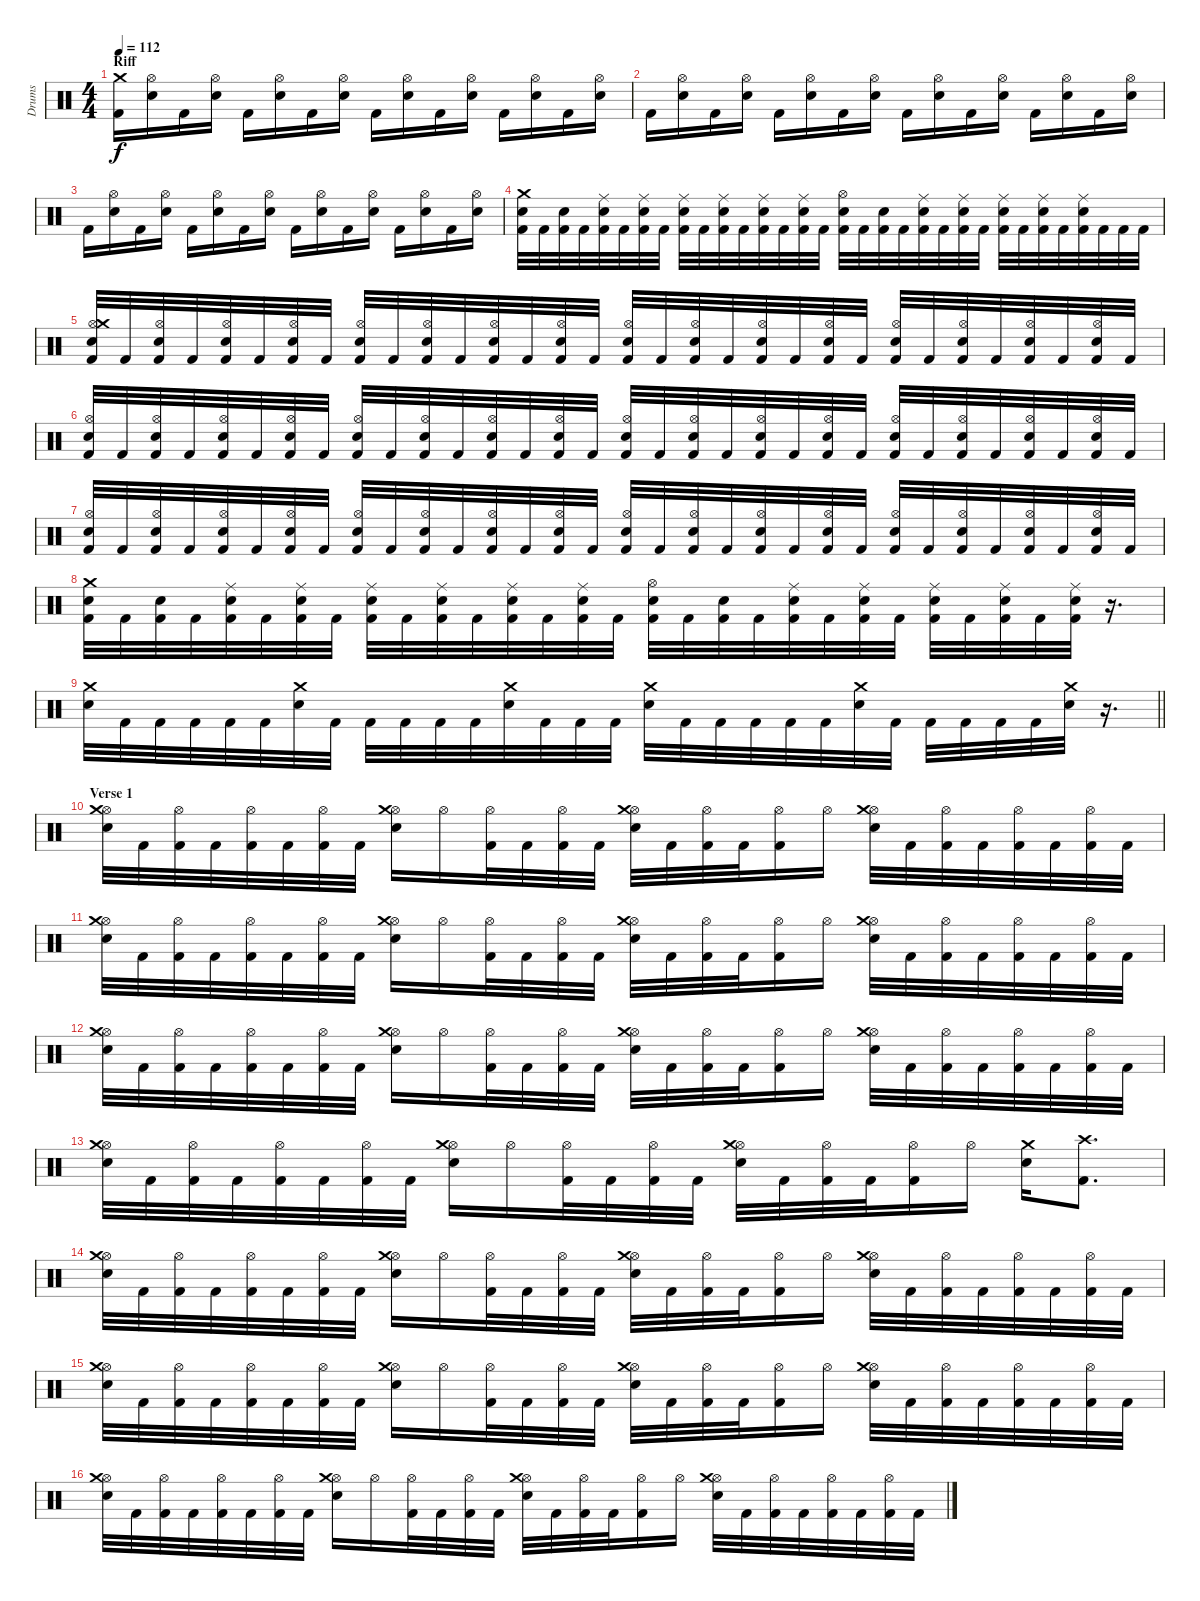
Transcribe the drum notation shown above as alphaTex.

\track ("Drums" "Drums") {instrument percussion}
\staff {score}
\articulation defaults
\ts (4 4)
\section ("" "Riff")
\tempo 112
\clef neutral
\ks c
("Kick (hit) 2" "Crash medium (hit)").16{dy f} ("Hi-Hat (open)" "Snare (hit) 2").16 "Kick (hit) 2".16 ("Hi-Hat (open)" "Snare (hit) 2").16 "Kick (hit) 2".16 ("Hi-Hat (open)" "Snare (hit) 2").16 "Kick (hit) 2".16 ("Hi-Hat (open)" "Snare (hit) 2").16 "Kick (hit) 2".16 ("Hi-Hat (open)" "Snare (hit) 2").16 "Kick (hit) 2".16 ("Hi-Hat (open)" "Snare (hit) 2").16 "Kick (hit) 2".16 ("Hi-Hat (open)" "Snare (hit) 2").16 "Kick (hit) 2".16 ("Hi-Hat (open)" "Snare (hit) 2").16 |
"Kick (hit) 2".16 ("Hi-Hat (open)" "Snare (hit) 2").16 "Kick (hit) 2".16 ("Hi-Hat (open)" "Snare (hit) 2").16 "Kick (hit) 2".16 ("Hi-Hat (open)" "Snare (hit) 2").16 "Kick (hit) 2".16 ("Hi-Hat (open)" "Snare (hit) 2").16 "Kick (hit) 2".16 ("Hi-Hat (open)" "Snare (hit) 2").16 "Kick (hit) 2".16 ("Hi-Hat (open)" "Snare (hit) 2").16 "Kick (hit) 2".16 ("Hi-Hat (open)" "Snare (hit) 2").16 "Kick (hit) 2".16 ("Hi-Hat (open)" "Snare (hit) 2").16 |
"Kick (hit) 2".16 ("Hi-Hat (open)" "Snare (hit) 2").16 "Kick (hit) 2".16 ("Hi-Hat (open)" "Snare (hit) 2").16 "Kick (hit) 2".16 ("Hi-Hat (open)" "Snare (hit) 2").16 "Kick (hit) 2".16 ("Hi-Hat (open)" "Snare (hit) 2").16 "Kick (hit) 2".16 ("Hi-Hat (open)" "Snare (hit) 2").16 "Kick (hit) 2".16 ("Hi-Hat (open)" "Snare (hit) 2").16 "Kick (hit) 2".16 ("Hi-Hat (open)" "Snare (hit) 2").16 "Kick (hit) 2".16 ("Hi-Hat (open)" "Snare (hit) 2").16 |
("Snare (hit) 2" "Kick (hit) 2" "Crash medium (hit)").32 "Kick (hit) 2".32 ("Snare (hit) 2" "Kick (hit) 2").32 "Kick (hit) 2".32 ("Ride (middle)" "Snare (hit) 2" "Kick (hit) 2").32 "Kick (hit) 2".32 ("Ride (middle)" "Snare (hit) 2" "Kick (hit) 2").32 "Kick (hit) 2".32 ("Ride (middle)" "Snare (hit) 2" "Kick (hit) 2").32 "Kick (hit) 2".32 ("Ride (middle)" "Snare (hit) 2" "Kick (hit) 2").32 "Kick (hit) 2".32 ("Ride (middle)" "Snare (hit) 2" "Kick (hit) 2").32 "Kick (hit) 2".32 ("Ride (middle)" "Snare (hit) 2" "Kick (hit) 2").32 "Kick (hit) 2".32 ("Hi-Hat (open)" "Snare (hit) 2" "Kick (hit) 2").32 "Kick (hit) 2".32 ("Snare (hit) 2" "Kick (hit) 2").32 "Kick (hit) 2".32 ("Ride (middle)" "Snare (hit) 2" "Kick (hit) 2").32 "Kick (hit) 2".32 ("Ride (middle)" "Snare (hit) 2" "Kick (hit) 2").32 "Kick (hit) 2".32 ("Ride (middle)" "Snare (hit) 2" "Kick (hit) 2").32 "Kick (hit) 2".32 ("Ride (middle)" "Snare (hit) 2" "Kick (hit) 2").32 "Kick (hit) 2".32 ("Ride (middle)" "Snare (hit) 2" "Kick (hit) 2").32 "Kick (hit) 2".32 "Kick (hit) 2".32 "Kick (hit) 2".32 |
("Hi-Hat (open)" "Snare (hit) 2" "Kick (hit) 2" "Crash medium (hit)").32 "Kick (hit) 2".32 ("Hi-Hat (open)" "Snare (hit) 2" "Kick (hit) 2").32 "Kick (hit) 2".32 ("Hi-Hat (open)" "Snare (hit) 2" "Kick (hit) 2").32 "Kick (hit) 2".32 ("Hi-Hat (open)" "Snare (hit) 2" "Kick (hit) 2").32 "Kick (hit) 2".32 ("Hi-Hat (open)" "Snare (hit) 2" "Kick (hit) 2").32 "Kick (hit) 2".32 ("Hi-Hat (open)" "Snare (hit) 2" "Kick (hit) 2").32 "Kick (hit) 2".32 ("Hi-Hat (open)" "Snare (hit) 2" "Kick (hit) 2").32 "Kick (hit) 2".32 ("Hi-Hat (open)" "Snare (hit) 2" "Kick (hit) 2").32 "Kick (hit) 2".32 ("Hi-Hat (open)" "Snare (hit) 2" "Kick (hit) 2").32 "Kick (hit) 2".32 ("Hi-Hat (open)" "Snare (hit) 2" "Kick (hit) 2").32 "Kick (hit) 2".32 ("Hi-Hat (open)" "Snare (hit) 2" "Kick (hit) 2").32 "Kick (hit) 2".32 ("Hi-Hat (open)" "Snare (hit) 2" "Kick (hit) 2").32 "Kick (hit) 2".32 ("Hi-Hat (open)" "Snare (hit) 2" "Kick (hit) 2").32 "Kick (hit) 2".32 ("Hi-Hat (open)" "Snare (hit) 2" "Kick (hit) 2").32 "Kick (hit) 2".32 ("Hi-Hat (open)" "Snare (hit) 2" "Kick (hit) 2").32 "Kick (hit) 2".32 ("Hi-Hat (open)" "Snare (hit) 2" "Kick (hit) 2").32 "Kick (hit) 2".32 |
("Hi-Hat (open)" "Snare (hit) 2" "Kick (hit) 2").32 "Kick (hit) 2".32 ("Hi-Hat (open)" "Snare (hit) 2" "Kick (hit) 2").32 "Kick (hit) 2".32 ("Hi-Hat (open)" "Snare (hit) 2" "Kick (hit) 2").32 "Kick (hit) 2".32 ("Hi-Hat (open)" "Snare (hit) 2" "Kick (hit) 2").32 "Kick (hit) 2".32 ("Hi-Hat (open)" "Snare (hit) 2" "Kick (hit) 2").32 "Kick (hit) 2".32 ("Hi-Hat (open)" "Snare (hit) 2" "Kick (hit) 2").32 "Kick (hit) 2".32 ("Hi-Hat (open)" "Snare (hit) 2" "Kick (hit) 2").32 "Kick (hit) 2".32 ("Hi-Hat (open)" "Snare (hit) 2" "Kick (hit) 2").32 "Kick (hit) 2".32 ("Hi-Hat (open)" "Snare (hit) 2" "Kick (hit) 2").32 "Kick (hit) 2".32 ("Hi-Hat (open)" "Snare (hit) 2" "Kick (hit) 2").32 "Kick (hit) 2".32 ("Hi-Hat (open)" "Snare (hit) 2" "Kick (hit) 2").32 "Kick (hit) 2".32 ("Hi-Hat (open)" "Snare (hit) 2" "Kick (hit) 2").32 "Kick (hit) 2".32 ("Hi-Hat (open)" "Snare (hit) 2" "Kick (hit) 2").32 "Kick (hit) 2".32 ("Hi-Hat (open)" "Snare (hit) 2" "Kick (hit) 2").32 "Kick (hit) 2".32 ("Hi-Hat (open)" "Snare (hit) 2" "Kick (hit) 2").32 "Kick (hit) 2".32 ("Hi-Hat (open)" "Snare (hit) 2" "Kick (hit) 2").32 "Kick (hit) 2".32 |
("Hi-Hat (open)" "Snare (hit) 2" "Kick (hit) 2").32 "Kick (hit) 2".32 ("Hi-Hat (open)" "Snare (hit) 2" "Kick (hit) 2").32 "Kick (hit) 2".32 ("Hi-Hat (open)" "Snare (hit) 2" "Kick (hit) 2").32 "Kick (hit) 2".32 ("Hi-Hat (open)" "Snare (hit) 2" "Kick (hit) 2").32 "Kick (hit) 2".32 ("Hi-Hat (open)" "Snare (hit) 2" "Kick (hit) 2").32 "Kick (hit) 2".32 ("Hi-Hat (open)" "Snare (hit) 2" "Kick (hit) 2").32 "Kick (hit) 2".32 ("Hi-Hat (open)" "Snare (hit) 2" "Kick (hit) 2").32 "Kick (hit) 2".32 ("Hi-Hat (open)" "Snare (hit) 2" "Kick (hit) 2").32 "Kick (hit) 2".32 ("Hi-Hat (open)" "Snare (hit) 2" "Kick (hit) 2").32 "Kick (hit) 2".32 ("Hi-Hat (open)" "Snare (hit) 2" "Kick (hit) 2").32 "Kick (hit) 2".32 ("Hi-Hat (open)" "Snare (hit) 2" "Kick (hit) 2").32 "Kick (hit) 2".32 ("Hi-Hat (open)" "Snare (hit) 2" "Kick (hit) 2").32 "Kick (hit) 2".32 ("Hi-Hat (open)" "Snare (hit) 2" "Kick (hit) 2").32 "Kick (hit) 2".32 ("Hi-Hat (open)" "Snare (hit) 2" "Kick (hit) 2").32 "Kick (hit) 2".32 ("Hi-Hat (open)" "Snare (hit) 2" "Kick (hit) 2").32 "Kick (hit) 2".32 ("Hi-Hat (open)" "Snare (hit) 2" "Kick (hit) 2").32 "Kick (hit) 2".32 |
("Snare (hit) 2" "Kick (hit) 2" "Crash medium (hit)").32 "Kick (hit) 2".32 ("Snare (hit) 2" "Kick (hit) 2").32 "Kick (hit) 2".32 ("Ride (middle)" "Snare (hit) 2" "Kick (hit) 2").32 "Kick (hit) 2".32 ("Ride (middle)" "Snare (hit) 2" "Kick (hit) 2").32 "Kick (hit) 2".32 ("Ride (middle)" "Snare (hit) 2" "Kick (hit) 2").32 "Kick (hit) 2".32 ("Ride (middle)" "Snare (hit) 2" "Kick (hit) 2").32 "Kick (hit) 2".32 ("Ride (middle)" "Snare (hit) 2" "Kick (hit) 2").32 "Kick (hit) 2".32 ("Ride (middle)" "Snare (hit) 2" "Kick (hit) 2").32 "Kick (hit) 2".32 ("Hi-Hat (open)" "Snare (hit) 2" "Kick (hit) 2").32 "Kick (hit) 2".32 ("Snare (hit) 2" "Kick (hit) 2").32 "Kick (hit) 2".32 ("Ride (middle)" "Snare (hit) 2" "Kick (hit) 2").32 "Kick (hit) 2".32 ("Ride (middle)" "Snare (hit) 2" "Kick (hit) 2").32 "Kick (hit) 2".32 ("Ride (middle)" "Snare (hit) 2" "Kick (hit) 2").32 "Kick (hit) 2".32 ("Ride (middle)" "Snare (hit) 2" "Kick (hit) 2").32 "Kick (hit) 2".32 ("Ride (middle)" "Snare (hit) 2" "Kick (hit) 2").32 r.16{d} |
\barLineRight lightlight
("Snare (hit) 2" "Crash medium (hit)").32 "Kick (hit) 2".32 "Kick (hit) 2".32 "Kick (hit) 2".32 "Kick (hit) 2".32 "Kick (hit) 2".32 ("Snare (hit) 2" "Crash medium (hit)").32 "Kick (hit) 2".32 "Kick (hit) 2".32 "Kick (hit) 2".32 "Kick (hit) 2".32 "Kick (hit) 2".32 ("Snare (hit) 2" "Crash medium (hit)").32 "Kick (hit) 2".32 "Kick (hit) 2".32 "Kick (hit) 2".32 ("Snare (hit) 2" "Crash medium (hit)").32 "Kick (hit) 2".32 "Kick (hit) 2".32 "Kick (hit) 2".32 "Kick (hit) 2".32 "Kick (hit) 2".32 ("Snare (hit) 2" "Crash medium (hit)").32 "Kick (hit) 2".32 "Kick (hit) 2".32 "Kick (hit) 2".32 "Kick (hit) 2".32 "Kick (hit) 2".32 ("Snare (hit) 2" "Crash medium (hit)").32 r.16{d} |
\section ("" "Verse 1")
("Hi-Hat (open)" "Snare (hit) 2" "Crash medium (hit)").32 "Kick (hit) 2".32 ("Hi-Hat (open)" "Kick (hit) 2").32 "Kick (hit) 2".32 ("Hi-Hat (open)" "Kick (hit) 2").32 "Kick (hit) 2".32 ("Hi-Hat (open)" "Kick (hit) 2").32 "Kick (hit) 2".32 ("Hi-Hat (open)" "Snare (hit) 2" "Crash medium (hit)").16 "Hi-Hat (open)".16 ("Hi-Hat (open)" "Kick (hit) 2").32 "Kick (hit) 2".32 ("Hi-Hat (open)" "Kick (hit) 2").32 "Kick (hit) 2".32 ("Hi-Hat (open)" "Snare (hit) 2" "Crash medium (hit)").32 "Kick (hit) 2".32 ("Hi-Hat (open)" "Kick (hit) 2").32 "Kick (hit) 2".32 ("Hi-Hat (open)" "Kick (hit) 2").16 "Hi-Hat (open)".16 ("Hi-Hat (open)" "Snare (hit) 2" "Crash medium (hit)").32 "Kick (hit) 2".32 ("Hi-Hat (open)" "Kick (hit) 2").32 "Kick (hit) 2".32 ("Hi-Hat (open)" "Kick (hit) 2").32 "Kick (hit) 2".32 ("Hi-Hat (open)" "Kick (hit) 2").32 "Kick (hit) 2".32 |
("Hi-Hat (open)" "Snare (hit) 2" "Crash medium (hit)").32 "Kick (hit) 2".32 ("Hi-Hat (open)" "Kick (hit) 2").32 "Kick (hit) 2".32 ("Hi-Hat (open)" "Kick (hit) 2").32 "Kick (hit) 2".32 ("Hi-Hat (open)" "Kick (hit) 2").32 "Kick (hit) 2".32 ("Hi-Hat (open)" "Snare (hit) 2" "Crash medium (hit)").16 "Hi-Hat (open)".16 ("Hi-Hat (open)" "Kick (hit) 2").32 "Kick (hit) 2".32 ("Hi-Hat (open)" "Kick (hit) 2").32 "Kick (hit) 2".32 ("Hi-Hat (open)" "Snare (hit) 2" "Crash medium (hit)").32 "Kick (hit) 2".32 ("Hi-Hat (open)" "Kick (hit) 2").32 "Kick (hit) 2".32 ("Hi-Hat (open)" "Kick (hit) 2").16 "Hi-Hat (open)".16 ("Hi-Hat (open)" "Snare (hit) 2" "Crash medium (hit)").32 "Kick (hit) 2".32 ("Hi-Hat (open)" "Kick (hit) 2").32 "Kick (hit) 2".32 ("Hi-Hat (open)" "Kick (hit) 2").32 "Kick (hit) 2".32 ("Hi-Hat (open)" "Kick (hit) 2").32 "Kick (hit) 2".32 |
("Hi-Hat (open)" "Snare (hit) 2" "Crash medium (hit)").32 "Kick (hit) 2".32 ("Hi-Hat (open)" "Kick (hit) 2").32 "Kick (hit) 2".32 ("Hi-Hat (open)" "Kick (hit) 2").32 "Kick (hit) 2".32 ("Hi-Hat (open)" "Kick (hit) 2").32 "Kick (hit) 2".32 ("Hi-Hat (open)" "Snare (hit) 2" "Crash medium (hit)").16 "Hi-Hat (open)".16 ("Hi-Hat (open)" "Kick (hit) 2").32 "Kick (hit) 2".32 ("Hi-Hat (open)" "Kick (hit) 2").32 "Kick (hit) 2".32 ("Hi-Hat (open)" "Snare (hit) 2" "Crash medium (hit)").32 "Kick (hit) 2".32 ("Hi-Hat (open)" "Kick (hit) 2").32 "Kick (hit) 2".32 ("Hi-Hat (open)" "Kick (hit) 2").16 "Hi-Hat (open)".16 ("Hi-Hat (open)" "Snare (hit) 2" "Crash medium (hit)").32 "Kick (hit) 2".32 ("Hi-Hat (open)" "Kick (hit) 2").32 "Kick (hit) 2".32 ("Hi-Hat (open)" "Kick (hit) 2").32 "Kick (hit) 2".32 ("Hi-Hat (open)" "Kick (hit) 2").32 "Kick (hit) 2".32 |
("Hi-Hat (open)" "Snare (hit) 2" "Crash medium (hit)").32 "Kick (hit) 2".32 ("Hi-Hat (open)" "Kick (hit) 2").32 "Kick (hit) 2".32 ("Hi-Hat (open)" "Kick (hit) 2").32 "Kick (hit) 2".32 ("Hi-Hat (open)" "Kick (hit) 2").32 "Kick (hit) 2".32 ("Hi-Hat (open)" "Snare (hit) 2" "Crash medium (hit)").16 "Hi-Hat (open)".16 ("Hi-Hat (open)" "Kick (hit) 2").32 "Kick (hit) 2".32 ("Hi-Hat (open)" "Kick (hit) 2").32 "Kick (hit) 2".32 ("Hi-Hat (open)" "Snare (hit) 2" "Crash medium (hit)").32 "Kick (hit) 2".32 ("Hi-Hat (open)" "Kick (hit) 2").32 "Kick (hit) 2".32 ("Hi-Hat (open)" "Kick (hit) 2").16 "Hi-Hat (open)".16 ("Snare (hit) 2" "Crash medium (hit)").16 ("Kick (hit) 2" "Crash high (hit)").8{d} |
("Hi-Hat (open)" "Snare (hit) 2" "Crash medium (hit)").32 "Kick (hit) 2".32 ("Hi-Hat (open)" "Kick (hit) 2").32 "Kick (hit) 2".32 ("Hi-Hat (open)" "Kick (hit) 2").32 "Kick (hit) 2".32 ("Hi-Hat (open)" "Kick (hit) 2").32 "Kick (hit) 2".32 ("Hi-Hat (open)" "Snare (hit) 2" "Crash medium (hit)").16 "Hi-Hat (open)".16 ("Hi-Hat (open)" "Kick (hit) 2").32 "Kick (hit) 2".32 ("Hi-Hat (open)" "Kick (hit) 2").32 "Kick (hit) 2".32 ("Hi-Hat (open)" "Snare (hit) 2" "Crash medium (hit)").32 "Kick (hit) 2".32 ("Hi-Hat (open)" "Kick (hit) 2").32 "Kick (hit) 2".32 ("Hi-Hat (open)" "Kick (hit) 2").16 "Hi-Hat (open)".16 ("Hi-Hat (open)" "Snare (hit) 2" "Crash medium (hit)").32 "Kick (hit) 2".32 ("Hi-Hat (open)" "Kick (hit) 2").32 "Kick (hit) 2".32 ("Hi-Hat (open)" "Kick (hit) 2").32 "Kick (hit) 2".32 ("Hi-Hat (open)" "Kick (hit) 2").32 "Kick (hit) 2".32 |
("Hi-Hat (open)" "Snare (hit) 2" "Crash medium (hit)").32 "Kick (hit) 2".32 ("Hi-Hat (open)" "Kick (hit) 2").32 "Kick (hit) 2".32 ("Hi-Hat (open)" "Kick (hit) 2").32 "Kick (hit) 2".32 ("Hi-Hat (open)" "Kick (hit) 2").32 "Kick (hit) 2".32 ("Hi-Hat (open)" "Snare (hit) 2" "Crash medium (hit)").16 "Hi-Hat (open)".16 ("Hi-Hat (open)" "Kick (hit) 2").32 "Kick (hit) 2".32 ("Hi-Hat (open)" "Kick (hit) 2").32 "Kick (hit) 2".32 ("Hi-Hat (open)" "Snare (hit) 2" "Crash medium (hit)").32 "Kick (hit) 2".32 ("Hi-Hat (open)" "Kick (hit) 2").32 "Kick (hit) 2".32 ("Hi-Hat (open)" "Kick (hit) 2").16 "Hi-Hat (open)".16 ("Hi-Hat (open)" "Snare (hit) 2" "Crash medium (hit)").32 "Kick (hit) 2".32 ("Hi-Hat (open)" "Kick (hit) 2").32 "Kick (hit) 2".32 ("Hi-Hat (open)" "Kick (hit) 2").32 "Kick (hit) 2".32 ("Hi-Hat (open)" "Kick (hit) 2").32 "Kick (hit) 2".32 |
("Hi-Hat (open)" "Snare (hit) 2" "Crash medium (hit)").32 "Kick (hit) 2".32 ("Hi-Hat (open)" "Kick (hit) 2").32 "Kick (hit) 2".32 ("Hi-Hat (open)" "Kick (hit) 2").32 "Kick (hit) 2".32 ("Hi-Hat (open)" "Kick (hit) 2").32 "Kick (hit) 2".32 ("Hi-Hat (open)" "Snare (hit) 2" "Crash medium (hit)").16 "Hi-Hat (open)".16 ("Hi-Hat (open)" "Kick (hit) 2").32 "Kick (hit) 2".32 ("Hi-Hat (open)" "Kick (hit) 2").32 "Kick (hit) 2".32 ("Hi-Hat (open)" "Snare (hit) 2" "Crash medium (hit)").32 "Kick (hit) 2".32 ("Hi-Hat (open)" "Kick (hit) 2").32 "Kick (hit) 2".32 ("Hi-Hat (open)" "Kick (hit) 2").16 "Hi-Hat (open)".16 ("Hi-Hat (open)" "Snare (hit) 2" "Crash medium (hit)").32 "Kick (hit) 2".32 ("Hi-Hat (open)" "Kick (hit) 2").32 "Kick (hit) 2".32 ("Hi-Hat (open)" "Kick (hit) 2").32 "Kick (hit) 2".32 ("Hi-Hat (open)" "Kick (hit) 2").32 "Kick (hit) 2".32
